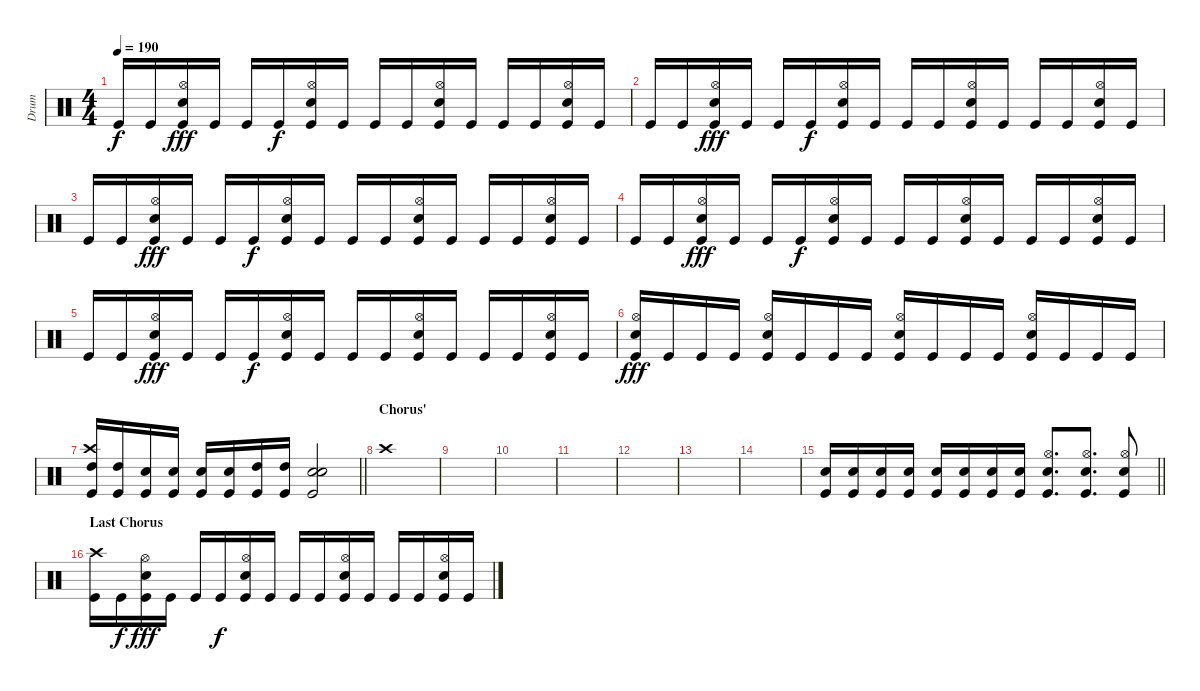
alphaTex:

\track ("Drum" "Drum") {instrument percussion}
\staff {score}
\articulation defaults
\ts (4 4)
\tempo 190
\clef neutral
\ks c "Kick (hit)".16{dy f} "Kick (hit)".16
("Hi-Hat (open)" "Snare (hit) 2" "Kick (hit)").16{dy fff} "Kick (hit)".16 "Kick (hit)".16 "Kick (hit)".16{dy f} ("Hi-Hat (open)" "Snare (hit) 2" "Kick (hit)").16 "Kick (hit)".16 "Kick (hit)".16 "Kick (hit)".16 ("Hi-Hat (open)" "Snare (hit) 2" "Kick (hit)").16 "Kick (hit)".16 "Kick (hit)".16 "Kick (hit)".16 ("Hi-Hat (open)" "Snare (hit) 2" "Kick (hit)").16 "Kick (hit)".16 |
"Kick (hit)".16 "Kick (hit)".16 ("Hi-Hat (open)" "Snare (hit) 2" "Kick (hit)").16{dy fff} "Kick (hit)".16 "Kick (hit)".16 "Kick (hit)".16{dy f} ("Hi-Hat (open)" "Snare (hit) 2" "Kick (hit)").16 "Kick (hit)".16 "Kick (hit)".16 "Kick (hit)".16 ("Hi-Hat (open)" "Snare (hit) 2" "Kick (hit)").16 "Kick (hit)".16 "Kick (hit)".16 "Kick (hit)".16 ("Hi-Hat (open)" "Snare (hit) 2" "Kick (hit)").16 "Kick (hit)".16 |
"Kick (hit)".16 "Kick (hit)".16 ("Hi-Hat (open)" "Snare (hit) 2" "Kick (hit)").16{dy fff} "Kick (hit)".16 "Kick (hit)".16 "Kick (hit)".16{dy f} ("Hi-Hat (open)" "Snare (hit) 2" "Kick (hit)").16 "Kick (hit)".16 "Kick (hit)".16 "Kick (hit)".16 ("Hi-Hat (open)" "Snare (hit) 2" "Kick (hit)").16 "Kick (hit)".16 "Kick (hit)".16 "Kick (hit)".16 ("Hi-Hat (open)" "Snare (hit) 2" "Kick (hit)").16 "Kick (hit)".16 |
"Kick (hit)".16 "Kick (hit)".16 ("Hi-Hat (open)" "Snare (hit) 2" "Kick (hit)").16{dy fff} "Kick (hit)".16 "Kick (hit)".16 "Kick (hit)".16{dy f} ("Hi-Hat (open)" "Snare (hit) 2" "Kick (hit)").16 "Kick (hit)".16 "Kick (hit)".16 "Kick (hit)".16 ("Hi-Hat (open)" "Snare (hit) 2" "Kick (hit)").16 "Kick (hit)".16 "Kick (hit)".16 "Kick (hit)".16 ("Hi-Hat (open)" "Snare (hit) 2" "Kick (hit)").16 "Kick (hit)".16 |
"Kick (hit)".16 "Kick (hit)".16 ("Hi-Hat (open)" "Snare (hit) 2" "Kick (hit)").16{dy fff} "Kick (hit)".16 "Kick (hit)".16 "Kick (hit)".16{dy f} ("Hi-Hat (open)" "Snare (hit) 2" "Kick (hit)").16 "Kick (hit)".16 "Kick (hit)".16 "Kick (hit)".16 ("Hi-Hat (open)" "Snare (hit) 2" "Kick (hit)").16 "Kick (hit)".16 "Kick (hit)".16 "Kick (hit)".16 ("Hi-Hat (open)" "Snare (hit) 2" "Kick (hit)").16 "Kick (hit)".16 |
("Hi-Hat (open)" "Snare (hit) 2" "Kick (hit)").16{dy fff} "Kick (hit)".16 "Kick (hit)".16 "Kick (hit)".16 ("Hi-Hat (open)" "Snare (hit) 2" "Kick (hit)").16 "Kick (hit)".16 "Kick (hit)".16 "Kick (hit)".16 ("Hi-Hat (open)" "Snare (hit) 2" "Kick (hit)").16 "Kick (hit)".16 "Kick (hit)".16 "Kick (hit)".16 ("Hi-Hat (open)" "Snare (hit) 2" "Kick (hit)").16 "Kick (hit)".16 "Kick (hit)".16 "Kick (hit)".16 |
\barLineRight lightlight
("Crash high (hit)" "High Tom (hit)" "Kick (hit)").16 ("High Tom (hit)" "Kick (hit)").16 ("Electric Snare (hit)" "Kick (hit)").16 ("Electric Snare (hit)" "Kick (hit)").16 ("Snare (hit) 2" "Kick (hit)").16 ("Snare (hit) 2" "Kick (hit)").16 ("High Tom (hit)" "Kick (hit)").16 ("High Tom (hit)" "Kick (hit)").16 ("Snare (hit) 2" "Electric Snare (hit)" "Kick (hit)").2 |
\section ("" "Chorus'")
"Crash high (hit)".1 |
|
|
|
|
|
|
\barLineRight lightlight
("Snare (hit) 2" "Kick (hit)").16 ("Snare (hit) 2" "Kick (hit)").16 ("Snare (hit) 2" "Kick (hit)").16 ("Snare (hit) 2" "Kick (hit)").16 ("Electric Snare (hit)" "Kick (hit)").16 ("Snare (hit) 2" "Kick (hit)").16 ("Snare (hit) 2" "Kick (hit)").16 ("Snare (hit) 2" "Kick (hit)").16 ("Hi-Hat (open)" "Snare (hit) 2" "Kick (hit)").8{d} ("Hi-Hat (open)" "Snare (hit) 2" "Kick (hit)").8{d} ("Hi-Hat (open)" "Snare (hit) 2" "Kick (hit)").8 |
\section ("" "Last Chorus")
("Crash high (hit)" "Kick (hit)").16 "Kick (hit)".16{dy f} ("Hi-Hat (open)" "Snare (hit) 2" "Kick (hit)").16{dy fff} "Kick (hit)".16 "Kick (hit)".16 "Kick (hit)".16{dy f} ("Hi-Hat (open)" "Snare (hit) 2" "Kick (hit)").16 "Kick (hit)".16 "Kick (hit)".16 "Kick (hit)".16 ("Hi-Hat (open)" "Snare (hit) 2" "Kick (hit)").16 "Kick (hit)".16 "Kick (hit)".16 "Kick (hit)".16 ("Hi-Hat (open)" "Snare (hit) 2" "Kick (hit)").16 "Kick (hit)".16
